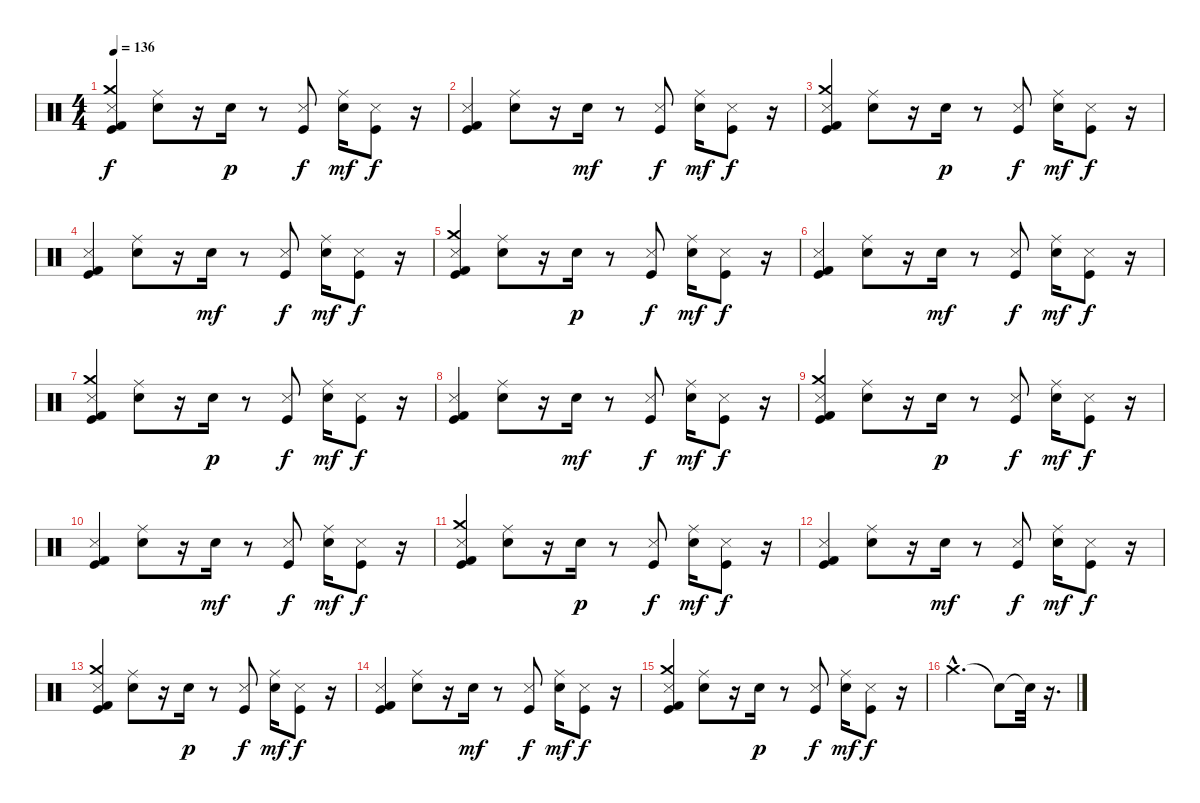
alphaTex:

\track "" {instrument percussion}
\staff {score}
\articulation defaults
\ts (4 4)
\tempo 136
\clef neutral
\ks c
("Metronome (hit)" "Kick (hit) 2" "Crash medium (hit)" "Kick (hit)").4{dy f} ("Ride (middle)" "Metronome (bell)").8 r.16 "Electric Snare (hit)".16{dy p} r.8 ("Metronome (hit)" "Kick (hit)").8{dy f} ("Ride (middle)" "Electric Snare (hit)").16{dy mf} ("Metronome (hit)" "Kick (hit)").8{dy f} r.16 |
("Metronome (hit)" "Kick (hit) 2" "Kick (hit)").4 ("Ride (middle)" "Metronome (bell)").8 r.16 "Electric Snare (hit)".16{dy mf} r.8 ("Metronome (hit)" "Kick (hit)").8{dy f} ("Ride (middle)" "Electric Snare (hit)").16{dy mf} ("Metronome (hit)" "Kick (hit)").8{dy f} r.16 |
("Metronome (hit)" "Kick (hit) 2" "Crash medium (hit)" "Kick (hit)").4 ("Ride (middle)" "Metronome (bell)").8 r.16 "Electric Snare (hit)".16{dy p} r.8 ("Metronome (hit)" "Kick (hit)").8{dy f} ("Ride (middle)" "Electric Snare (hit)").16{dy mf} ("Metronome (hit)" "Kick (hit)").8{dy f} r.16 |
("Metronome (hit)" "Kick (hit) 2" "Kick (hit)").4 ("Ride (middle)" "Metronome (bell)").8 r.16 "Electric Snare (hit)".16{dy mf} r.8 ("Metronome (hit)" "Kick (hit)").8{dy f} ("Ride (middle)" "Electric Snare (hit)").16{dy mf} ("Metronome (hit)" "Kick (hit)").8{dy f} r.16 |
("Metronome (hit)" "Kick (hit) 2" "Crash medium (hit)" "Kick (hit)").4 ("Ride (middle)" "Metronome (bell)").8 r.16 "Electric Snare (hit)".16{dy p} r.8 ("Metronome (hit)" "Kick (hit)").8{dy f} ("Ride (middle)" "Electric Snare (hit)").16{dy mf} ("Metronome (hit)" "Kick (hit)").8{dy f} r.16 |
("Metronome (hit)" "Kick (hit) 2" "Kick (hit)").4 ("Ride (middle)" "Metronome (bell)").8 r.16 "Electric Snare (hit)".16{dy mf} r.8 ("Metronome (hit)" "Kick (hit)").8{dy f} ("Ride (middle)" "Electric Snare (hit)").16{dy mf} ("Metronome (hit)" "Kick (hit)").8{dy f} r.16 |
("Metronome (hit)" "Kick (hit) 2" "Crash medium (hit)" "Kick (hit)").4 ("Ride (middle)" "Metronome (bell)").8 r.16 "Electric Snare (hit)".16{dy p} r.8 ("Metronome (hit)" "Kick (hit)").8{dy f} ("Ride (middle)" "Electric Snare (hit)").16{dy mf} ("Metronome (hit)" "Kick (hit)").8{dy f} r.16 |
("Metronome (hit)" "Kick (hit) 2" "Kick (hit)").4 ("Ride (middle)" "Metronome (bell)").8 r.16 "Electric Snare (hit)".16{dy mf} r.8 ("Metronome (hit)" "Kick (hit)").8{dy f} ("Ride (middle)" "Electric Snare (hit)").16{dy mf} ("Metronome (hit)" "Kick (hit)").8{dy f} r.16 |
("Metronome (hit)" "Kick (hit) 2" "Crash medium (hit)" "Kick (hit)").4 ("Ride (middle)" "Metronome (bell)").8 r.16 "Electric Snare (hit)".16{dy p} r.8 ("Metronome (hit)" "Kick (hit)").8{dy f} ("Ride (middle)" "Electric Snare (hit)").16{dy mf} ("Metronome (hit)" "Kick (hit)").8{dy f} r.16 |
("Metronome (hit)" "Kick (hit) 2" "Kick (hit)").4 ("Ride (middle)" "Metronome (bell)").8 r.16 "Electric Snare (hit)".16{dy mf} r.8 ("Metronome (hit)" "Kick (hit)").8{dy f} ("Ride (middle)" "Electric Snare (hit)").16{dy mf} ("Metronome (hit)" "Kick (hit)").8{dy f} r.16 |
("Metronome (hit)" "Kick (hit) 2" "Crash medium (hit)" "Kick (hit)").4 ("Ride (middle)" "Metronome (bell)").8 r.16 "Electric Snare (hit)".16{dy p} r.8 ("Metronome (hit)" "Kick (hit)").8{dy f} ("Ride (middle)" "Electric Snare (hit)").16{dy mf} ("Metronome (hit)" "Kick (hit)").8{dy f} r.16 |
("Metronome (hit)" "Kick (hit) 2" "Kick (hit)").4 ("Ride (middle)" "Metronome (bell)").8 r.16 "Electric Snare (hit)".16{dy mf} r.8 ("Metronome (hit)" "Kick (hit)").8{dy f} ("Ride (middle)" "Electric Snare (hit)").16{dy mf} ("Metronome (hit)" "Kick (hit)").8{dy f} r.16 |
("Metronome (hit)" "Kick (hit) 2" "Crash medium (hit)" "Kick (hit)").4 ("Ride (middle)" "Metronome (bell)").8 r.16 "Electric Snare (hit)".16{dy p} r.8 ("Metronome (hit)" "Kick (hit)").8{dy f} ("Ride (middle)" "Electric Snare (hit)").16{dy mf} ("Metronome (hit)" "Kick (hit)").8{dy f} r.16 |
("Metronome (hit)" "Kick (hit) 2" "Kick (hit)").4 ("Ride (middle)" "Metronome (bell)").8 r.16 "Electric Snare (hit)".16{dy mf} r.8 ("Metronome (hit)" "Kick (hit)").8{dy f} ("Ride (middle)" "Electric Snare (hit)").16{dy mf} ("Metronome (hit)" "Kick (hit)").8{dy f} r.16 |
("Metronome (hit)" "Kick (hit) 2" "Crash medium (hit)" "Kick (hit)").4 ("Ride (middle)" "Metronome (bell)").8 r.16 "Electric Snare (hit)".16{dy p} r.8 ("Metronome (hit)" "Kick (hit)").8{dy f} ("Ride (middle)" "Electric Snare (hit)").16{dy mf} ("Metronome (hit)" "Kick (hit)").8{dy f} r.16 |
"Crash medium (hit)"{hac}.2{d} "Snare (hit)"{t}.8 "Snare (hit)"{t}.32 r.16{d}
